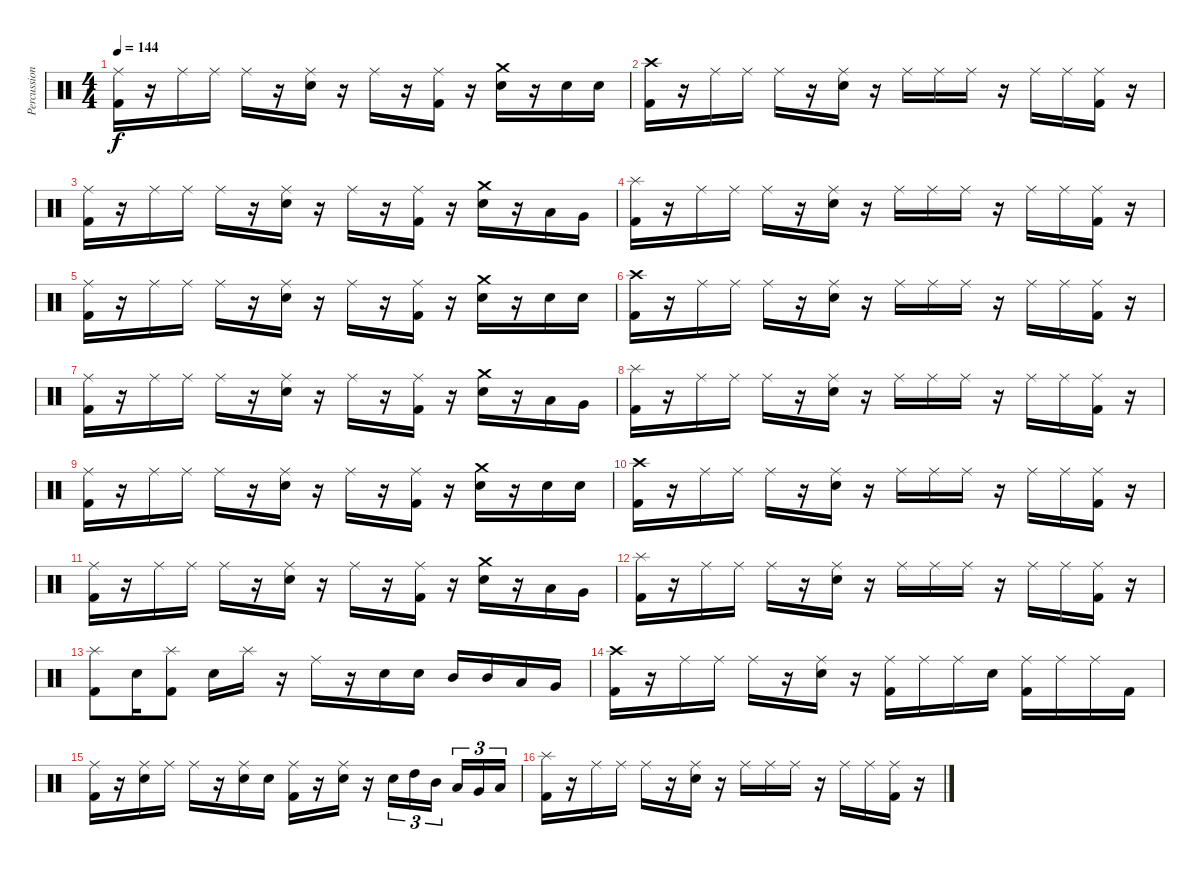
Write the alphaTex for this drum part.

\track ("Percussion" "Percussion") {instrument percussion}
\staff {score}
\articulation defaults
\ts (4 4)
\tempo 144
\clef neutral
\ks c
("Ride (middle)" "Kick (hit) 2").16{dy f} r.16 "Ride (middle)".16 "Ride (middle)".16 "Ride (middle)".16 r.16 ("Ride (middle)" "Electric Snare (hit)").16 r.16 "Ride (middle)".16 r.16 ("Ride (middle)" "Kick (hit) 2").16 r.16 ("Crash medium (hit)" "Electric Snare (hit)").16 r.16 "Electric Snare (hit)".16 "Electric Snare (hit)".16 |
("Crash high (hit)" "Kick (hit) 2").16 r.16 "Ride (middle)".16 "Ride (middle)".16 "Ride (middle)".16 r.16 ("Ride (middle)" "Electric Snare (hit)").16 r.16 "Ride (middle)".16 "Ride (middle)".16 "Ride (middle)".16 r.16 "Ride (middle)".16 "Ride (middle)".16 ("Ride (middle)" "Kick (hit) 2").16 r.16 |
("Ride (middle)" "Kick (hit) 2").16 r.16 "Ride (middle)".16 "Ride (middle)".16 "Ride (middle)".16 r.16 ("Ride (middle)" "Electric Snare (hit)").16 r.16 "Ride (middle)".16 r.16 ("Ride (middle)" "Kick (hit) 2").16 r.16 ("Crash medium (hit)" "Electric Snare (hit)").16 r.16 "Low Tom (hit)".16 "Very Low Tom (hit)".16 |
("Splash (hit)" "Kick (hit) 2").16 r.16 "Ride (middle)".16 "Ride (middle)".16 "Ride (middle)".16 r.16 ("Ride (middle)" "Electric Snare (hit)").16 r.16 "Ride (middle)".16 "Ride (middle)".16 "Ride (middle)".16 r.16 "Ride (middle)".16 "Ride (middle)".16 ("Ride (middle)" "Kick (hit) 2").16 r.16 |
("Ride (middle)" "Kick (hit) 2").16 r.16 "Ride (middle)".16 "Ride (middle)".16 "Ride (middle)".16 r.16 ("Ride (middle)" "Electric Snare (hit)").16 r.16 "Ride (middle)".16 r.16 ("Ride (middle)" "Kick (hit) 2").16 r.16 ("Crash medium (hit)" "Electric Snare (hit)").16 r.16 "Electric Snare (hit)".16 "Electric Snare (hit)".16 |
("Crash high (hit)" "Kick (hit) 2").16 r.16 "Ride (middle)".16 "Ride (middle)".16 "Ride (middle)".16 r.16 ("Ride (middle)" "Electric Snare (hit)").16 r.16 "Ride (middle)".16 "Ride (middle)".16 "Ride (middle)".16 r.16 "Ride (middle)".16 "Ride (middle)".16 ("Ride (middle)" "Kick (hit) 2").16 r.16 |
("Ride (middle)" "Kick (hit) 2").16 r.16 "Ride (middle)".16 "Ride (middle)".16 "Ride (middle)".16 r.16 ("Ride (middle)" "Electric Snare (hit)").16 r.16 "Ride (middle)".16 r.16 ("Ride (middle)" "Kick (hit) 2").16 r.16 ("Crash medium (hit)" "Electric Snare (hit)").16 r.16 "Low Tom (hit)".16 "Very Low Tom (hit)".16 |
("Splash (hit)" "Kick (hit) 2").16 r.16 "Ride (middle)".16 "Ride (middle)".16 "Ride (middle)".16 r.16 ("Ride (middle)" "Electric Snare (hit)").16 r.16 "Ride (middle)".16 "Ride (middle)".16 "Ride (middle)".16 r.16 "Ride (middle)".16 "Ride (middle)".16 ("Ride (middle)" "Kick (hit) 2").16 r.16 |
("Ride (middle)" "Kick (hit) 2").16 r.16 "Ride (middle)".16 "Ride (middle)".16 "Ride (middle)".16 r.16 ("Ride (middle)" "Electric Snare (hit)").16 r.16 "Ride (middle)".16 r.16 ("Ride (middle)" "Kick (hit) 2").16 r.16 ("Crash medium (hit)" "Electric Snare (hit)").16 r.16 "Electric Snare (hit)".16 "Electric Snare (hit)".16 |
("Crash high (hit)" "Kick (hit) 2").16 r.16 "Ride (middle)".16 "Ride (middle)".16 "Ride (middle)".16 r.16 ("Ride (middle)" "Electric Snare (hit)").16 r.16 "Ride (middle)".16 "Ride (middle)".16 "Ride (middle)".16 r.16 "Ride (middle)".16 "Ride (middle)".16 ("Ride (middle)" "Kick (hit) 2").16 r.16 |
("Ride (middle)" "Kick (hit) 2").16 r.16 "Ride (middle)".16 "Ride (middle)".16 "Ride (middle)".16 r.16 ("Ride (middle)" "Electric Snare (hit)").16 r.16 "Ride (middle)".16 r.16 ("Ride (middle)" "Kick (hit) 2").16 r.16 ("Crash medium (hit)" "Electric Snare (hit)").16 r.16 "Low Tom (hit)".16 "Very Low Tom (hit)".16 |
("Splash (hit)" "Kick (hit) 2").16 r.16 "Ride (middle)".16 "Ride (middle)".16 "Ride (middle)".16 r.16 ("Ride (middle)" "Electric Snare (hit)").16 r.16 "Ride (middle)".16 "Ride (middle)".16 "Ride (middle)".16 r.16 "Ride (middle)".16 "Ride (middle)".16 ("Ride (middle)" "Kick (hit) 2").16 r.16 |
("Splash (hit)" "Kick (hit) 2").8 "Electric Snare (hit)".16 ("Splash (hit)" "Kick (hit) 2").8 "Electric Snare (hit)".16 "Splash (hit)".16 r.16 "Ride (middle)".16 r.16 "Electric Snare (hit)".16 "Electric Snare (hit)".16 "Mid Tom (hit)".16 "Mid Tom (hit)".16 "Low Tom (hit)".16 "Very Low Tom (hit)".16 |
("Crash high (hit)" "Kick (hit) 2").16 r.16 "Ride (middle)".16 "Ride (middle)".16 "Ride (middle)".16 r.16 ("Ride (middle)" "Electric Snare (hit)").16 r.16 ("Ride (middle)" "Kick (hit) 2").16 "Ride (middle)".16 "Ride (middle)".16 "Electric Snare (hit)".16 ("Ride (middle)" "Kick (hit) 2").16 "Ride (middle)".16 "Ride (middle)".16 "Kick (hit) 2".16 |
("Ride (middle)" "Kick (hit) 2").16 r.16 ("Ride (middle)" "Electric Snare (hit)").16 "Ride (middle)".16 "Ride (middle)".16 r.16 ("Ride (middle)" "Electric Snare (hit)").16 "Electric Snare (hit)".16 ("Ride (middle)" "Kick (hit) 2").16 r.16 ("Ride (middle)" "Electric Snare (hit)").16 r.16 "Electric Snare (hit)".16{tu (3 2)} "High Tom (hit)".16{tu (3 2)} "Mid Tom (hit)".16{tu (3 2)} "Low Tom (hit)".16{tu (3 2)} "Very Low Tom (hit)".16{tu (3 2)} "Low Floor Tom (hit)".16{tu (3 2)} |
("Splash (hit)" "Kick (hit) 2").16 r.16 "Ride (middle)".16 "Ride (middle)".16 "Ride (middle)".16 r.16 ("Ride (middle)" "Electric Snare (hit)").16 r.16 "Ride (middle)".16 "Ride (middle)".16 "Ride (middle)".16 r.16 "Ride (middle)".16 "Ride (middle)".16 ("Ride (middle)" "Kick (hit) 2").16 r.16
